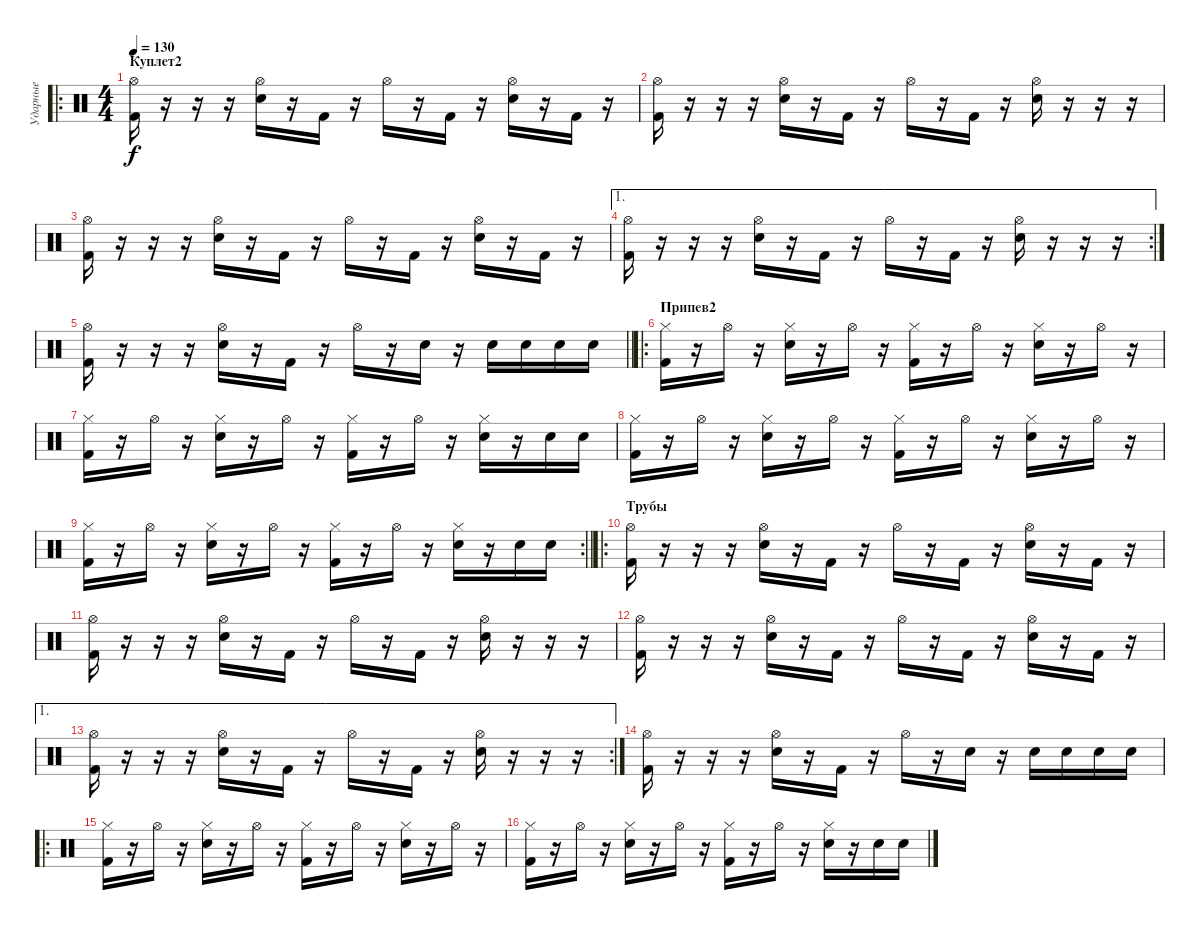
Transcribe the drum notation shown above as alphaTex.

\track ("Ударные" "Ударные") {instrument percussion}
\staff {score}
\articulation defaults
\ro
\ts (4 4)
\section ("" "Куплет2")
\tempo 130
\clef neutral
\ks c
("Hi-Hat (open)" "Kick (hit) 2").16{dy f} r.16 r.16 r.16 ("Hi-Hat (open)" "Electric Snare (hit)").16 r.16 "Kick (hit) 2".16 r.16 "Hi-Hat (open)".16 r.16 "Kick (hit) 2".16 r.16 ("Hi-Hat (open)" "Electric Snare (hit)").16 r.16 "Kick (hit) 2".16 r.16 |
("Hi-Hat (open)" "Kick (hit) 2").16 r.16 r.16 r.16 ("Hi-Hat (open)" "Electric Snare (hit)").16 r.16 "Kick (hit) 2".16 r.16 "Hi-Hat (open)".16 r.16 "Kick (hit) 2".16 r.16 ("Hi-Hat (open)" "Electric Snare (hit)").16 r.16 r.16 r.16 |
("Hi-Hat (open)" "Kick (hit) 2").16 r.16 r.16 r.16 ("Hi-Hat (open)" "Electric Snare (hit)").16 r.16 "Kick (hit) 2".16 r.16 "Hi-Hat (open)".16 r.16 "Kick (hit) 2".16 r.16 ("Hi-Hat (open)" "Electric Snare (hit)").16 r.16 "Kick (hit) 2".16 r.16 |
\ae 1
\rc 2
("Hi-Hat (open)" "Kick (hit) 2").16 r.16 r.16 r.16 ("Hi-Hat (open)" "Electric Snare (hit)").16 r.16 "Kick (hit) 2".16 r.16 "Hi-Hat (open)".16 r.16 "Kick (hit) 2".16 r.16 ("Hi-Hat (open)" "Electric Snare (hit)").16 r.16 r.16 r.16 |
\barLineRight lightlight
("Hi-Hat (open)" "Kick (hit) 2").16 r.16 r.16 r.16 ("Hi-Hat (open)" "Electric Snare (hit)").16 r.16 "Kick (hit) 2".16 r.16 "Hi-Hat (open)".16 r.16 "Electric Snare (hit)".16 r.16 "Electric Snare (hit)".16 "Electric Snare (hit)".16 "Electric Snare (hit)".16 "Electric Snare (hit)".16 |
\ro
\section ("" "Припев2")
("Hi-Hat (closed)" "Kick (hit) 2").16 r.16 "Hi-Hat (open)".16 r.16 ("Hi-Hat (closed)" "Electric Snare (hit)").16 r.16 "Hi-Hat (open)".16 r.16 ("Hi-Hat (closed)" "Kick (hit) 2").16 r.16 "Hi-Hat (open)".16 r.16 ("Hi-Hat (closed)" "Electric Snare (hit)").16 r.16 "Hi-Hat (open)".16 r.16 |
("Hi-Hat (closed)" "Kick (hit) 2").16 r.16 "Hi-Hat (open)".16 r.16 ("Hi-Hat (closed)" "Electric Snare (hit)").16 r.16 "Hi-Hat (open)".16 r.16 ("Hi-Hat (closed)" "Kick (hit) 2").16 r.16 "Hi-Hat (open)".16 r.16 ("Hi-Hat (closed)" "Electric Snare (hit)").16 r.16 "Electric Snare (hit)".16 "Electric Snare (hit)".16 |
("Hi-Hat (closed)" "Kick (hit) 2").16 r.16 "Hi-Hat (open)".16 r.16 ("Hi-Hat (closed)" "Electric Snare (hit)").16 r.16 "Hi-Hat (open)".16 r.16 ("Hi-Hat (closed)" "Kick (hit) 2").16 r.16 "Hi-Hat (open)".16 r.16 ("Hi-Hat (closed)" "Electric Snare (hit)").16 r.16 "Hi-Hat (open)".16 r.16 |
\rc 2
\barLineRight lightlight
("Hi-Hat (closed)" "Kick (hit) 2").16 r.16 "Hi-Hat (open)".16 r.16 ("Hi-Hat (closed)" "Electric Snare (hit)").16 r.16 "Hi-Hat (open)".16 r.16 ("Hi-Hat (closed)" "Kick (hit) 2").16 r.16 "Hi-Hat (open)".16 r.16 ("Hi-Hat (closed)" "Electric Snare (hit)").16 r.16 "Electric Snare (hit)".16 "Electric Snare (hit)".16 |
\ro
\section ("" "Трубы")
("Hi-Hat (open)" "Kick (hit) 2").16 r.16 r.16 r.16 ("Hi-Hat (open)" "Electric Snare (hit)").16 r.16 "Kick (hit) 2".16 r.16 "Hi-Hat (open)".16 r.16 "Kick (hit) 2".16 r.16 ("Hi-Hat (open)" "Electric Snare (hit)").16 r.16 "Kick (hit) 2".16 r.16 |
("Hi-Hat (open)" "Kick (hit) 2").16 r.16 r.16 r.16 ("Hi-Hat (open)" "Electric Snare (hit)").16 r.16 "Kick (hit) 2".16 r.16 "Hi-Hat (open)".16 r.16 "Kick (hit) 2".16 r.16 ("Hi-Hat (open)" "Electric Snare (hit)").16 r.16 r.16 r.16 |
("Hi-Hat (open)" "Kick (hit) 2").16 r.16 r.16 r.16 ("Hi-Hat (open)" "Electric Snare (hit)").16 r.16 "Kick (hit) 2".16 r.16 "Hi-Hat (open)".16 r.16 "Kick (hit) 2".16 r.16 ("Hi-Hat (open)" "Electric Snare (hit)").16 r.16 "Kick (hit) 2".16 r.16 |
\ae 1
\rc 2
("Hi-Hat (open)" "Kick (hit) 2").16 r.16 r.16 r.16 ("Hi-Hat (open)" "Electric Snare (hit)").16 r.16 "Kick (hit) 2".16 r.16 "Hi-Hat (open)".16 r.16 "Kick (hit) 2".16 r.16 ("Hi-Hat (open)" "Electric Snare (hit)").16 r.16 r.16 r.16 |
("Hi-Hat (open)" "Kick (hit) 2").16 r.16 r.16 r.16 ("Hi-Hat (open)" "Electric Snare (hit)").16 r.16 "Kick (hit) 2".16 r.16 "Hi-Hat (open)".16 r.16 "Electric Snare (hit)".16 r.16 "Electric Snare (hit)".16 "Electric Snare (hit)".16 "Electric Snare (hit)".16 "Electric Snare (hit)".16 |
\ro
("Hi-Hat (closed)" "Kick (hit) 2").16 r.16 "Hi-Hat (open)".16 r.16 ("Hi-Hat (closed)" "Electric Snare (hit)").16 r.16 "Hi-Hat (open)".16 r.16 ("Hi-Hat (closed)" "Kick (hit) 2").16 r.16 "Hi-Hat (open)".16 r.16 ("Hi-Hat (closed)" "Electric Snare (hit)").16 r.16 "Hi-Hat (open)".16 r.16 |
("Hi-Hat (closed)" "Kick (hit) 2").16 r.16 "Hi-Hat (open)".16 r.16 ("Hi-Hat (closed)" "Electric Snare (hit)").16 r.16 "Hi-Hat (open)".16 r.16 ("Hi-Hat (closed)" "Kick (hit) 2").16 r.16 "Hi-Hat (open)".16 r.16 ("Hi-Hat (closed)" "Electric Snare (hit)").16 r.16 "Electric Snare (hit)".16 "Electric Snare (hit)".16
